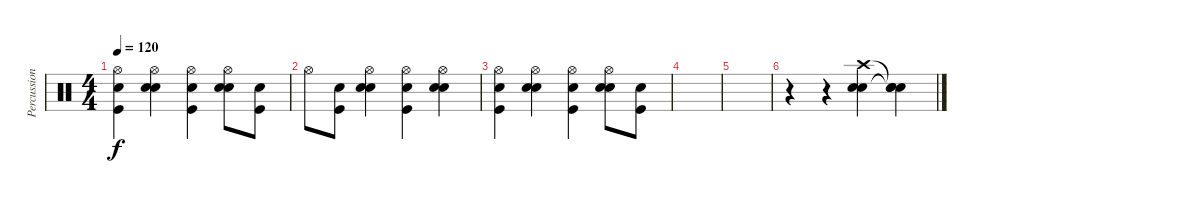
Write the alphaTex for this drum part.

\track ("Percussion" "Percussion") {instrument percussion}
\staff {score}
\articulation defaults
\ts (4 4)
\tempo 120
\clef neutral
\ks c
("Hi-Hat (open)" "Snare (hit) 2" "Kick (hit)").4{dy f} ("Hi-Hat (open)" "Snare (hit) 2" "Electric Snare (hit)").4 ("Hi-Hat (open)" "Snare (hit) 2" "Kick (hit)").4 ("Hi-Hat (open)" "Snare (hit) 2" "Electric Snare (hit)").8 ("Snare (hit) 2" "Kick (hit)").8 |
"Hi-Hat (open)".8 ("Snare (hit) 2" "Kick (hit)").8 ("Hi-Hat (open)" "Snare (hit) 2" "Electric Snare (hit)").4 ("Hi-Hat (open)" "Snare (hit) 2" "Kick (hit)").4 ("Hi-Hat (open)" "Snare (hit) 2" "Electric Snare (hit)").4 |
("Hi-Hat (open)" "Snare (hit) 2" "Kick (hit)").4 ("Hi-Hat (open)" "Snare (hit) 2" "Electric Snare (hit)").4 ("Hi-Hat (open)" "Snare (hit) 2" "Kick (hit)").4 ("Hi-Hat (open)" "Snare (hit) 2" "Electric Snare (hit)").8 ("Snare (hit) 2" "Kick (hit)").8 |
|
|
r.4 r.4 ("Crash high (hit)" "Electric Snare (hit)" "Snare (hit) 2").4 ("Snare (hit)"{t} "Snare (hit)"{t} "Snare (hit)"{t}).4
